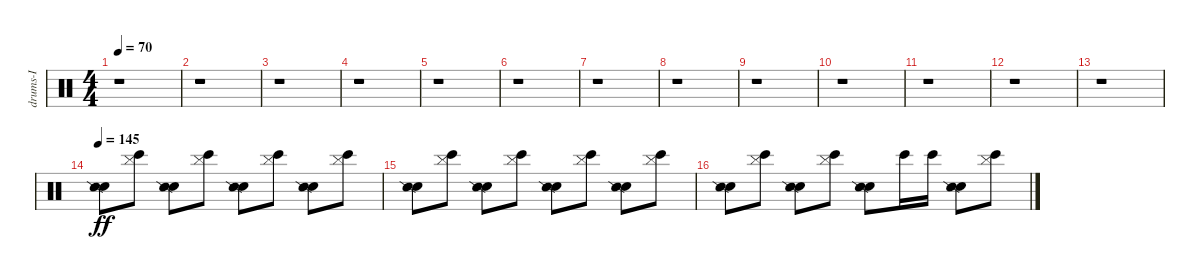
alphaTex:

\track ("drums-I" "drums-I") {instrument percussion}
\staff {score}
\articulation defaults
\ts (4 4)
\tempo 70
\clef neutral
\ks c
r.1{dy ff} |
r.1 |
r.1 |
r.1 |
r.1 |
r.1 |
r.1 |
r.1 |
r.1 |
r.1 |
r.1 |
r.1 |
r.1 |
\tempo 145
("Snare (hit)" "Snare (side stick) 2").8 ("Bongo High (hit)" "Cymbal (hit)").8 ("Snare (hit)" "Snare (side stick) 2").8 ("Bongo High (hit)" "Cymbal (hit)").8 ("Snare (hit)" "Snare (side stick) 2").8 ("Bongo High (hit)" "Cymbal (hit)").8 ("Snare (hit)" "Snare (side stick) 2").8 ("Bongo High (hit)" "Cymbal (hit)").8 |
("Snare (hit)" "Snare (side stick) 2").8 ("Bongo High (hit)" "Cymbal (hit)").8 ("Snare (hit)" "Snare (side stick) 2").8 ("Bongo High (hit)" "Cymbal (hit)").8 ("Snare (hit)" "Snare (side stick) 2").8 ("Bongo High (hit)" "Cymbal (hit)").8 ("Snare (hit)" "Snare (side stick) 2").8 ("Bongo High (hit)" "Cymbal (hit)").8 |
("Snare (hit)" "Snare (side stick) 2").8 ("Bongo High (hit)" "Cymbal (hit)").8 ("Snare (hit)" "Snare (side stick) 2").8 ("Bongo High (hit)" "Cymbal (hit)").8 ("Snare (hit)" "Snare (side stick) 2").8 "Bongo High (hit)".16 "Bongo High (hit)".16 ("Snare (hit)" "Snare (side stick) 2").8 ("Bongo High (hit)" "Cymbal (hit)").8
